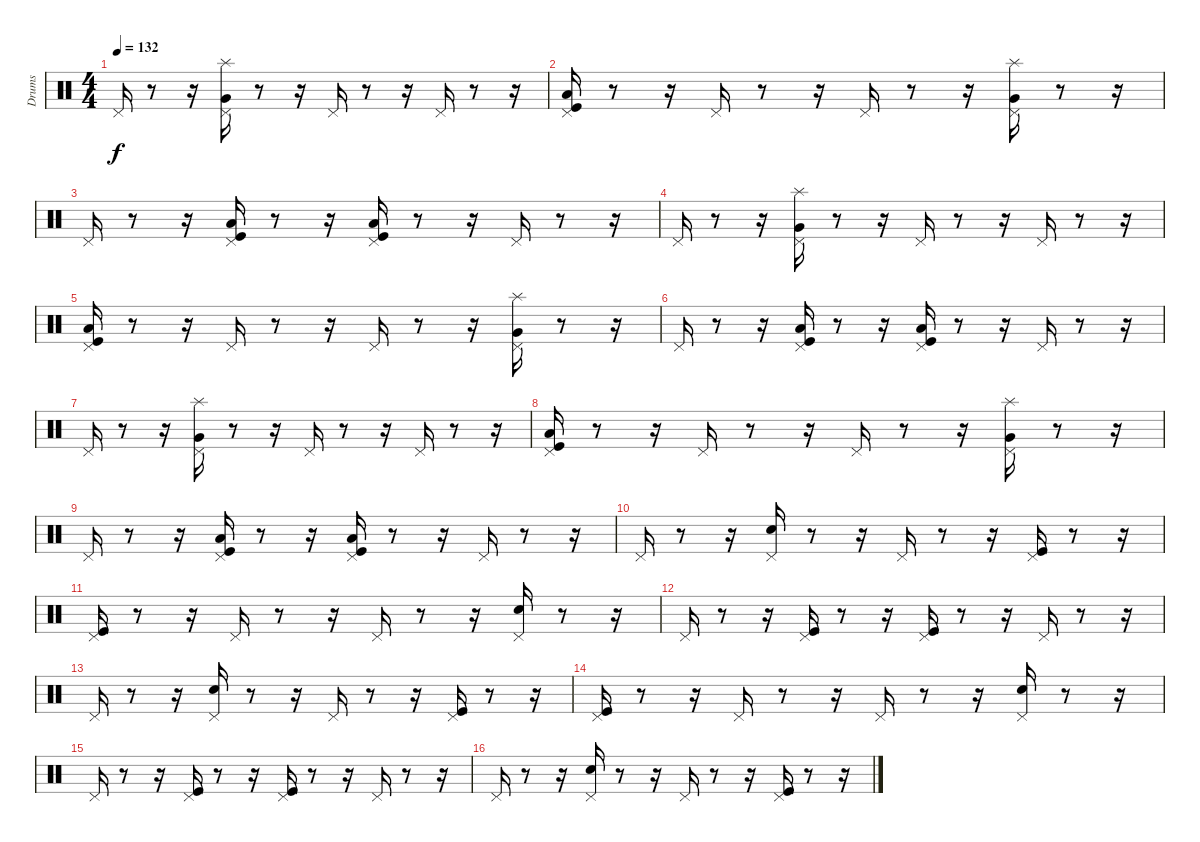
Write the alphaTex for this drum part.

\track ("Drums" "Drums") {instrument percussion}
\staff {score}
\articulation defaults
\ts (4 4)
\tempo 132
\clef neutral
\ks c "Pedal Hi-Hat (hit)".16{dy f}
r.8 r.16 ("Pedal Hi-Hat (hit)" "Very Low Tom (hit)" "Splash (hit)").16 r.8 r.16 "Pedal Hi-Hat (hit)".16 r.8 r.16 "Pedal Hi-Hat (hit)".16 r.8 r.16 |
("Low Floor Tom (hit)" "Pedal Hi-Hat (hit)" "Kick (hit)").16 r.8 r.16 "Pedal Hi-Hat (hit)".16 r.8 r.16 "Pedal Hi-Hat (hit)".16 r.8 r.16 ("Pedal Hi-Hat (hit)" "Very Low Tom (hit)" "Splash (hit)").16 r.8 r.16 |
"Pedal Hi-Hat (hit)".16 r.8 r.16 ("Pedal Hi-Hat (hit)" "Low Floor Tom (hit)" "Kick (hit)").16 r.8 r.16 ("Low Floor Tom (hit)" "Pedal Hi-Hat (hit)" "Kick (hit)").16 r.8 r.16 "Pedal Hi-Hat (hit)".16 r.8 r.16 |
"Pedal Hi-Hat (hit)".16 r.8 r.16 ("Pedal Hi-Hat (hit)" "Very Low Tom (hit)" "Splash (hit)").16 r.8 r.16 "Pedal Hi-Hat (hit)".16 r.8 r.16 "Pedal Hi-Hat (hit)".16 r.8 r.16 |
("Low Floor Tom (hit)" "Pedal Hi-Hat (hit)" "Kick (hit)").16 r.8 r.16 "Pedal Hi-Hat (hit)".16 r.8 r.16 "Pedal Hi-Hat (hit)".16 r.8 r.16 ("Pedal Hi-Hat (hit)" "Very Low Tom (hit)" "Splash (hit)").16 r.8 r.16 |
"Pedal Hi-Hat (hit)".16 r.8 r.16 ("Pedal Hi-Hat (hit)" "Low Floor Tom (hit)" "Kick (hit)").16 r.8 r.16 ("Low Floor Tom (hit)" "Pedal Hi-Hat (hit)" "Kick (hit)").16 r.8 r.16 "Pedal Hi-Hat (hit)".16 r.8 r.16 |
"Pedal Hi-Hat (hit)".16 r.8 r.16 ("Pedal Hi-Hat (hit)" "Very Low Tom (hit)" "Splash (hit)").16 r.8 r.16 "Pedal Hi-Hat (hit)".16 r.8 r.16 "Pedal Hi-Hat (hit)".16 r.8 r.16 |
("Low Floor Tom (hit)" "Pedal Hi-Hat (hit)" "Kick (hit)").16 r.8 r.16 "Pedal Hi-Hat (hit)".16 r.8 r.16 "Pedal Hi-Hat (hit)".16 r.8 r.16 ("Pedal Hi-Hat (hit)" "Very Low Tom (hit)" "Splash (hit)").16 r.8 r.16 |
"Pedal Hi-Hat (hit)".16 r.8 r.16 ("Pedal Hi-Hat (hit)" "Low Floor Tom (hit)" "Kick (hit)").16 r.8 r.16 ("Pedal Hi-Hat (hit)" "Low Floor Tom (hit)" "Kick (hit)").16 r.8 r.16 "Pedal Hi-Hat (hit)".16 r.8 r.16 |
"Pedal Hi-Hat (hit)".16 r.8 r.16 ("Pedal Hi-Hat (hit)" "Snare (hit) 2").16 r.8 r.16 "Pedal Hi-Hat (hit)".16 r.8 r.16 ("Pedal Hi-Hat (hit)" "Kick (hit)").16 r.8 r.16 |
("Pedal Hi-Hat (hit)" "Kick (hit)").16 r.8 r.16 "Pedal Hi-Hat (hit)".16 r.8 r.16 "Pedal Hi-Hat (hit)".16 r.8 r.16 ("Pedal Hi-Hat (hit)" "Snare (hit) 2").16 r.8 r.16 |
"Pedal Hi-Hat (hit)".16 r.8 r.16 ("Pedal Hi-Hat (hit)" "Kick (hit)").16 r.8 r.16 ("Pedal Hi-Hat (hit)" "Kick (hit)").16 r.8 r.16 "Pedal Hi-Hat (hit)".16 r.8 r.16 |
"Pedal Hi-Hat (hit)".16 r.8 r.16 ("Pedal Hi-Hat (hit)" "Snare (hit) 2").16 r.8 r.16 "Pedal Hi-Hat (hit)".16 r.8 r.16 ("Pedal Hi-Hat (hit)" "Kick (hit)").16 r.8 r.16 |
("Pedal Hi-Hat (hit)" "Kick (hit)").16 r.8 r.16 "Pedal Hi-Hat (hit)".16 r.8 r.16 "Pedal Hi-Hat (hit)".16 r.8 r.16 ("Pedal Hi-Hat (hit)" "Snare (hit) 2").16 r.8 r.16 |
"Pedal Hi-Hat (hit)".16 r.8 r.16 ("Pedal Hi-Hat (hit)" "Kick (hit)").16 r.8 r.16 ("Pedal Hi-Hat (hit)" "Kick (hit)").16 r.8 r.16 "Pedal Hi-Hat (hit)".16 r.8 r.16 |
"Pedal Hi-Hat (hit)".16 r.8 r.16 ("Pedal Hi-Hat (hit)" "Snare (hit) 2").16 r.8 r.16 "Pedal Hi-Hat (hit)".16 r.8 r.16 ("Pedal Hi-Hat (hit)" "Kick (hit)").16 r.8 r.16
